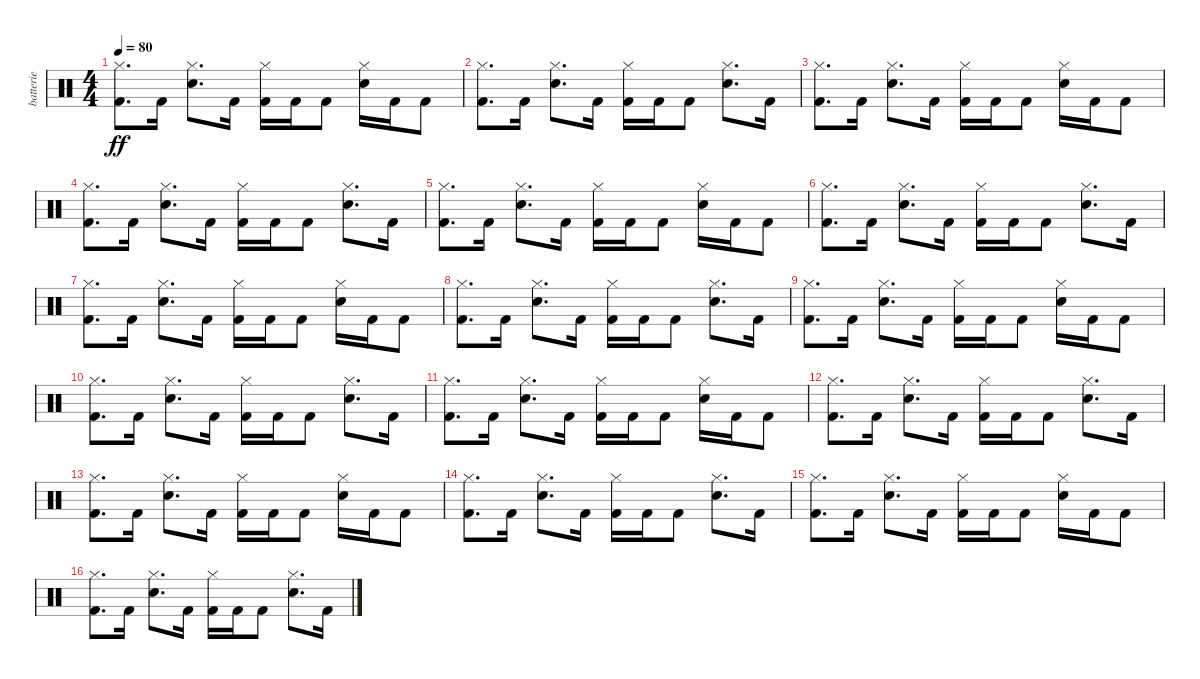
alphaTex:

\track ("batterie" "batterie") {instrument percussion}
\staff {score}
\articulation defaults
\ts (4 4)
\tempo 80
\clef neutral
\ks c
("Kick (hit) 2" "Hi-Hat (closed)").8{d dy ff} "Kick (hit) 2".16 ("Electric Snare (hit)" "Hi-Hat (closed)").8{d} "Kick (hit) 2".16 ("Kick (hit) 2" "Hi-Hat (closed)").16 "Kick (hit) 2".16 "Kick (hit) 2".8 ("Electric Snare (hit)" "Hi-Hat (closed)").16 "Kick (hit) 2".16 "Kick (hit) 2".8 |
("Kick (hit) 2" "Hi-Hat (closed)").8{d} "Kick (hit) 2".16 ("Electric Snare (hit)" "Hi-Hat (closed)").8{d} "Kick (hit) 2".16 ("Kick (hit) 2" "Hi-Hat (closed)").16 "Kick (hit) 2".16 "Kick (hit) 2".8 ("Electric Snare (hit)" "Hi-Hat (closed)").8{d} "Kick (hit) 2".16 |
("Kick (hit) 2" "Hi-Hat (closed)").8{d} "Kick (hit) 2".16 ("Electric Snare (hit)" "Hi-Hat (closed)").8{d} "Kick (hit) 2".16 ("Kick (hit) 2" "Hi-Hat (closed)").16 "Kick (hit) 2".16 "Kick (hit) 2".8 ("Electric Snare (hit)" "Hi-Hat (closed)").16 "Kick (hit) 2".16 "Kick (hit) 2".8 |
("Kick (hit) 2" "Hi-Hat (closed)").8{d} "Kick (hit) 2".16 ("Electric Snare (hit)" "Hi-Hat (closed)").8{d} "Kick (hit) 2".16 ("Kick (hit) 2" "Hi-Hat (closed)").16 "Kick (hit) 2".16 "Kick (hit) 2".8 ("Electric Snare (hit)" "Hi-Hat (closed)").8{d} "Kick (hit) 2".16 |
("Kick (hit) 2" "Hi-Hat (closed)").8{d} "Kick (hit) 2".16 ("Electric Snare (hit)" "Hi-Hat (closed)").8{d} "Kick (hit) 2".16 ("Kick (hit) 2" "Hi-Hat (closed)").16 "Kick (hit) 2".16 "Kick (hit) 2".8 ("Electric Snare (hit)" "Hi-Hat (closed)").16 "Kick (hit) 2".16 "Kick (hit) 2".8 |
("Kick (hit) 2" "Hi-Hat (closed)").8{d} "Kick (hit) 2".16 ("Electric Snare (hit)" "Hi-Hat (closed)").8{d} "Kick (hit) 2".16 ("Kick (hit) 2" "Hi-Hat (closed)").16 "Kick (hit) 2".16 "Kick (hit) 2".8 ("Electric Snare (hit)" "Hi-Hat (closed)").8{d} "Kick (hit) 2".16 |
("Kick (hit) 2" "Hi-Hat (closed)").8{d} "Kick (hit) 2".16 ("Electric Snare (hit)" "Hi-Hat (closed)").8{d} "Kick (hit) 2".16 ("Kick (hit) 2" "Hi-Hat (closed)").16 "Kick (hit) 2".16 "Kick (hit) 2".8 ("Electric Snare (hit)" "Hi-Hat (closed)").16 "Kick (hit) 2".16 "Kick (hit) 2".8 |
("Kick (hit) 2" "Hi-Hat (closed)").8{d} "Kick (hit) 2".16 ("Electric Snare (hit)" "Hi-Hat (closed)").8{d} "Kick (hit) 2".16 ("Kick (hit) 2" "Hi-Hat (closed)").16 "Kick (hit) 2".16 "Kick (hit) 2".8 ("Electric Snare (hit)" "Hi-Hat (closed)").8{d} "Kick (hit) 2".16 |
("Kick (hit) 2" "Hi-Hat (closed)").8{d} "Kick (hit) 2".16 ("Electric Snare (hit)" "Hi-Hat (closed)").8{d} "Kick (hit) 2".16 ("Kick (hit) 2" "Hi-Hat (closed)").16 "Kick (hit) 2".16 "Kick (hit) 2".8 ("Electric Snare (hit)" "Hi-Hat (closed)").16 "Kick (hit) 2".16 "Kick (hit) 2".8 |
("Kick (hit) 2" "Hi-Hat (closed)").8{d} "Kick (hit) 2".16 ("Electric Snare (hit)" "Hi-Hat (closed)").8{d} "Kick (hit) 2".16 ("Kick (hit) 2" "Hi-Hat (closed)").16 "Kick (hit) 2".16 "Kick (hit) 2".8 ("Electric Snare (hit)" "Hi-Hat (closed)").8{d} "Kick (hit) 2".16 |
("Kick (hit) 2" "Hi-Hat (closed)").8{d} "Kick (hit) 2".16 ("Electric Snare (hit)" "Hi-Hat (closed)").8{d} "Kick (hit) 2".16 ("Kick (hit) 2" "Hi-Hat (closed)").16 "Kick (hit) 2".16 "Kick (hit) 2".8 ("Electric Snare (hit)" "Hi-Hat (closed)").16 "Kick (hit) 2".16 "Kick (hit) 2".8 |
("Kick (hit) 2" "Hi-Hat (closed)").8{d} "Kick (hit) 2".16 ("Electric Snare (hit)" "Hi-Hat (closed)").8{d} "Kick (hit) 2".16 ("Kick (hit) 2" "Hi-Hat (closed)").16 "Kick (hit) 2".16 "Kick (hit) 2".8 ("Electric Snare (hit)" "Hi-Hat (closed)").8{d} "Kick (hit) 2".16 |
("Kick (hit) 2" "Hi-Hat (closed)").8{d} "Kick (hit) 2".16 ("Electric Snare (hit)" "Hi-Hat (closed)").8{d} "Kick (hit) 2".16 ("Kick (hit) 2" "Hi-Hat (closed)").16 "Kick (hit) 2".16 "Kick (hit) 2".8 ("Electric Snare (hit)" "Hi-Hat (closed)").16 "Kick (hit) 2".16 "Kick (hit) 2".8 |
("Kick (hit) 2" "Hi-Hat (closed)").8{d} "Kick (hit) 2".16 ("Electric Snare (hit)" "Hi-Hat (closed)").8{d} "Kick (hit) 2".16 ("Kick (hit) 2" "Hi-Hat (closed)").16 "Kick (hit) 2".16 "Kick (hit) 2".8 ("Electric Snare (hit)" "Hi-Hat (closed)").8{d} "Kick (hit) 2".16 |
("Kick (hit) 2" "Hi-Hat (closed)").8{d} "Kick (hit) 2".16 ("Electric Snare (hit)" "Hi-Hat (closed)").8{d} "Kick (hit) 2".16 ("Kick (hit) 2" "Hi-Hat (closed)").16 "Kick (hit) 2".16 "Kick (hit) 2".8 ("Electric Snare (hit)" "Hi-Hat (closed)").16 "Kick (hit) 2".16 "Kick (hit) 2".8 |
("Kick (hit) 2" "Hi-Hat (closed)").8{d} "Kick (hit) 2".16 ("Electric Snare (hit)" "Hi-Hat (closed)").8{d} "Kick (hit) 2".16 ("Kick (hit) 2" "Hi-Hat (closed)").16 "Kick (hit) 2".16 "Kick (hit) 2".8 ("Electric Snare (hit)" "Hi-Hat (closed)").8{d} "Kick (hit) 2".16
